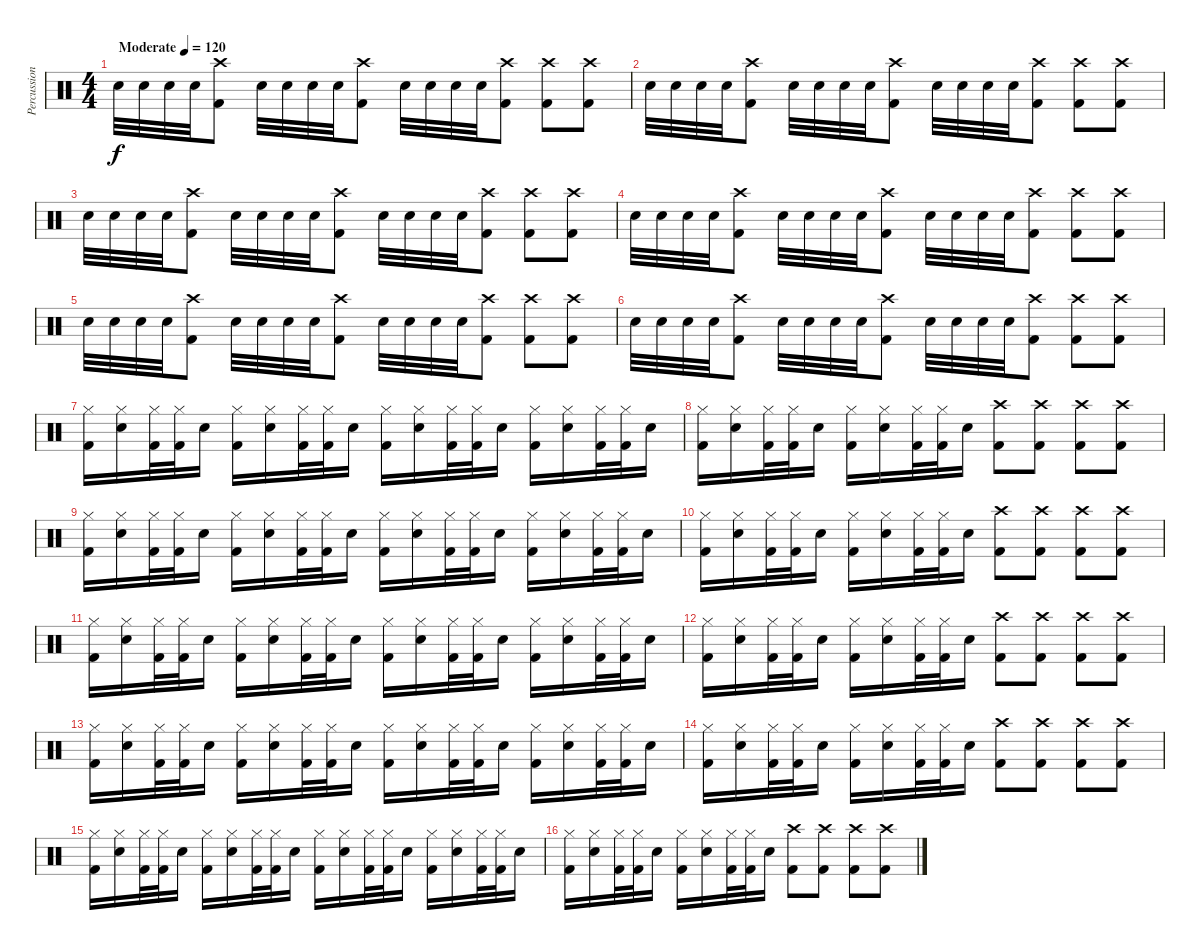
\track ("Percussion" "Percussion") {instrument percussion}
\staff {score}
\articulation defaults
\ts (4 4)
\tempo (120 "Moderate")
\clef neutral
\ks c "Electric Snare (hit)".32{dy f} "Electric Snare (hit)".32 "Electric Snare (hit)".32 "Electric Snare (hit)".32
("Crash high (hit)" "Kick (hit) 2").8 "Electric Snare (hit)".32 "Electric Snare (hit)".32 "Electric Snare (hit)".32 "Electric Snare (hit)".32 ("Crash high (hit)" "Kick (hit) 2").8 "Electric Snare (hit)".32 "Electric Snare (hit)".32 "Electric Snare (hit)".32 "Electric Snare (hit)".32 ("Crash high (hit)" "Kick (hit) 2").8 ("Crash high (hit)" "Kick (hit) 2").8 ("Crash high (hit)" "Kick (hit) 2").8 |
"Electric Snare (hit)".32 "Electric Snare (hit)".32 "Electric Snare (hit)".32 "Electric Snare (hit)".32 ("Crash high (hit)" "Kick (hit) 2").8 "Electric Snare (hit)".32 "Electric Snare (hit)".32 "Electric Snare (hit)".32 "Electric Snare (hit)".32 ("Crash high (hit)" "Kick (hit) 2").8 "Electric Snare (hit)".32 "Electric Snare (hit)".32 "Electric Snare (hit)".32 "Electric Snare (hit)".32 ("Crash high (hit)" "Kick (hit) 2").8 ("Crash high (hit)" "Kick (hit) 2").8 ("Crash high (hit)" "Kick (hit) 2").8 |
"Electric Snare (hit)".32 "Electric Snare (hit)".32 "Electric Snare (hit)".32 "Electric Snare (hit)".32 ("Crash high (hit)" "Kick (hit) 2").8 "Electric Snare (hit)".32 "Electric Snare (hit)".32 "Electric Snare (hit)".32 "Electric Snare (hit)".32 ("Crash high (hit)" "Kick (hit) 2").8 "Electric Snare (hit)".32 "Electric Snare (hit)".32 "Electric Snare (hit)".32 "Electric Snare (hit)".32 ("Crash high (hit)" "Kick (hit) 2").8 ("Crash high (hit)" "Kick (hit) 2").8 ("Crash high (hit)" "Kick (hit) 2").8 |
"Electric Snare (hit)".32 "Electric Snare (hit)".32 "Electric Snare (hit)".32 "Electric Snare (hit)".32 ("Crash high (hit)" "Kick (hit) 2").8 "Electric Snare (hit)".32 "Electric Snare (hit)".32 "Electric Snare (hit)".32 "Electric Snare (hit)".32 ("Crash high (hit)" "Kick (hit) 2").8 "Electric Snare (hit)".32 "Electric Snare (hit)".32 "Electric Snare (hit)".32 "Electric Snare (hit)".32 ("Crash high (hit)" "Kick (hit) 2").8 ("Crash high (hit)" "Kick (hit) 2").8 ("Crash high (hit)" "Kick (hit) 2").8 |
"Electric Snare (hit)".32 "Electric Snare (hit)".32 "Electric Snare (hit)".32 "Electric Snare (hit)".32 ("Crash high (hit)" "Kick (hit) 2").8 "Electric Snare (hit)".32 "Electric Snare (hit)".32 "Electric Snare (hit)".32 "Electric Snare (hit)".32 ("Crash high (hit)" "Kick (hit) 2").8 "Electric Snare (hit)".32 "Electric Snare (hit)".32 "Electric Snare (hit)".32 "Electric Snare (hit)".32 ("Crash high (hit)" "Kick (hit) 2").8 ("Crash high (hit)" "Kick (hit) 2").8 ("Crash high (hit)" "Kick (hit) 2").8 |
"Electric Snare (hit)".32 "Electric Snare (hit)".32 "Electric Snare (hit)".32 "Electric Snare (hit)".32 ("Crash high (hit)" "Kick (hit) 2").8 "Electric Snare (hit)".32 "Electric Snare (hit)".32 "Electric Snare (hit)".32 "Electric Snare (hit)".32 ("Crash high (hit)" "Kick (hit) 2").8 "Electric Snare (hit)".32 "Electric Snare (hit)".32 "Electric Snare (hit)".32 "Electric Snare (hit)".32 ("Crash high (hit)" "Kick (hit) 2").8 ("Crash high (hit)" "Kick (hit) 2").8 ("Crash high (hit)" "Kick (hit) 2").8 |
("Hi-Hat (closed)" "Kick (hit) 2").16 ("Hi-Hat (closed)" "Electric Snare (hit)").16 ("Hi-Hat (closed)" "Kick (hit) 2").32 ("Hi-Hat (closed)" "Kick (hit) 2").32 "Electric Snare (hit)".16 ("Hi-Hat (closed)" "Kick (hit) 2").16 ("Hi-Hat (closed)" "Electric Snare (hit)").16 ("Hi-Hat (closed)" "Kick (hit) 2").32 ("Hi-Hat (closed)" "Kick (hit) 2").32 "Electric Snare (hit)".16 ("Hi-Hat (closed)" "Kick (hit) 2").16 ("Hi-Hat (closed)" "Electric Snare (hit)").16 ("Hi-Hat (closed)" "Kick (hit) 2").32 ("Hi-Hat (closed)" "Kick (hit) 2").32 "Electric Snare (hit)".16 ("Hi-Hat (closed)" "Kick (hit) 2").16 ("Hi-Hat (closed)" "Electric Snare (hit)").16 ("Hi-Hat (closed)" "Kick (hit) 2").32 ("Hi-Hat (closed)" "Kick (hit) 2").32 "Electric Snare (hit)".16 |
("Hi-Hat (closed)" "Kick (hit) 2").16 ("Hi-Hat (closed)" "Electric Snare (hit)").16 ("Hi-Hat (closed)" "Kick (hit) 2").32 ("Hi-Hat (closed)" "Kick (hit) 2").32 "Electric Snare (hit)".16 ("Hi-Hat (closed)" "Kick (hit) 2").16 ("Hi-Hat (closed)" "Electric Snare (hit)").16 ("Hi-Hat (closed)" "Kick (hit) 2").32 ("Hi-Hat (closed)" "Kick (hit) 2").32 "Electric Snare (hit)".16 ("Crash high (hit)" "Kick (hit) 2").8 ("Crash high (hit)" "Kick (hit) 2").8 ("Crash high (hit)" "Kick (hit) 2").8 ("Crash high (hit)" "Kick (hit) 2").8 |
("Hi-Hat (closed)" "Kick (hit) 2").16 ("Hi-Hat (closed)" "Electric Snare (hit)").16 ("Hi-Hat (closed)" "Kick (hit) 2").32 ("Hi-Hat (closed)" "Kick (hit) 2").32 "Electric Snare (hit)".16 ("Hi-Hat (closed)" "Kick (hit) 2").16 ("Hi-Hat (closed)" "Electric Snare (hit)").16 ("Hi-Hat (closed)" "Kick (hit) 2").32 ("Hi-Hat (closed)" "Kick (hit) 2").32 "Electric Snare (hit)".16 ("Hi-Hat (closed)" "Kick (hit) 2").16 ("Hi-Hat (closed)" "Electric Snare (hit)").16 ("Hi-Hat (closed)" "Kick (hit) 2").32 ("Hi-Hat (closed)" "Kick (hit) 2").32 "Electric Snare (hit)".16 ("Hi-Hat (closed)" "Kick (hit) 2").16 ("Hi-Hat (closed)" "Electric Snare (hit)").16 ("Hi-Hat (closed)" "Kick (hit) 2").32 ("Hi-Hat (closed)" "Kick (hit) 2").32 "Electric Snare (hit)".16 |
("Hi-Hat (closed)" "Kick (hit) 2").16 ("Hi-Hat (closed)" "Electric Snare (hit)").16 ("Hi-Hat (closed)" "Kick (hit) 2").32 ("Hi-Hat (closed)" "Kick (hit) 2").32 "Electric Snare (hit)".16 ("Hi-Hat (closed)" "Kick (hit) 2").16 ("Hi-Hat (closed)" "Electric Snare (hit)").16 ("Hi-Hat (closed)" "Kick (hit) 2").32 ("Hi-Hat (closed)" "Kick (hit) 2").32 "Electric Snare (hit)".16 ("Crash high (hit)" "Kick (hit) 2").8 ("Crash high (hit)" "Kick (hit) 2").8 ("Crash high (hit)" "Kick (hit) 2").8 ("Crash high (hit)" "Kick (hit) 2").8 |
("Hi-Hat (closed)" "Kick (hit) 2").16 ("Hi-Hat (closed)" "Electric Snare (hit)").16 ("Hi-Hat (closed)" "Kick (hit) 2").32 ("Hi-Hat (closed)" "Kick (hit) 2").32 "Electric Snare (hit)".16 ("Hi-Hat (closed)" "Kick (hit) 2").16 ("Hi-Hat (closed)" "Electric Snare (hit)").16 ("Hi-Hat (closed)" "Kick (hit) 2").32 ("Hi-Hat (closed)" "Kick (hit) 2").32 "Electric Snare (hit)".16 ("Hi-Hat (closed)" "Kick (hit) 2").16 ("Hi-Hat (closed)" "Electric Snare (hit)").16 ("Hi-Hat (closed)" "Kick (hit) 2").32 ("Hi-Hat (closed)" "Kick (hit) 2").32 "Electric Snare (hit)".16 ("Hi-Hat (closed)" "Kick (hit) 2").16 ("Hi-Hat (closed)" "Electric Snare (hit)").16 ("Hi-Hat (closed)" "Kick (hit) 2").32 ("Hi-Hat (closed)" "Kick (hit) 2").32 "Electric Snare (hit)".16 |
("Hi-Hat (closed)" "Kick (hit) 2").16 ("Hi-Hat (closed)" "Electric Snare (hit)").16 ("Hi-Hat (closed)" "Kick (hit) 2").32 ("Hi-Hat (closed)" "Kick (hit) 2").32 "Electric Snare (hit)".16 ("Hi-Hat (closed)" "Kick (hit) 2").16 ("Hi-Hat (closed)" "Electric Snare (hit)").16 ("Hi-Hat (closed)" "Kick (hit) 2").32 ("Hi-Hat (closed)" "Kick (hit) 2").32 "Electric Snare (hit)".16 ("Crash high (hit)" "Kick (hit) 2").8 ("Crash high (hit)" "Kick (hit) 2").8 ("Crash high (hit)" "Kick (hit) 2").8 ("Crash high (hit)" "Kick (hit) 2").8 |
("Hi-Hat (closed)" "Kick (hit) 2").16 ("Hi-Hat (closed)" "Electric Snare (hit)").16 ("Hi-Hat (closed)" "Kick (hit) 2").32 ("Hi-Hat (closed)" "Kick (hit) 2").32 "Electric Snare (hit)".16 ("Hi-Hat (closed)" "Kick (hit) 2").16 ("Hi-Hat (closed)" "Electric Snare (hit)").16 ("Hi-Hat (closed)" "Kick (hit) 2").32 ("Hi-Hat (closed)" "Kick (hit) 2").32 "Electric Snare (hit)".16 ("Hi-Hat (closed)" "Kick (hit) 2").16 ("Hi-Hat (closed)" "Electric Snare (hit)").16 ("Hi-Hat (closed)" "Kick (hit) 2").32 ("Hi-Hat (closed)" "Kick (hit) 2").32 "Electric Snare (hit)".16 ("Hi-Hat (closed)" "Kick (hit) 2").16 ("Hi-Hat (closed)" "Electric Snare (hit)").16 ("Hi-Hat (closed)" "Kick (hit) 2").32 ("Hi-Hat (closed)" "Kick (hit) 2").32 "Electric Snare (hit)".16 |
("Hi-Hat (closed)" "Kick (hit) 2").16 ("Hi-Hat (closed)" "Electric Snare (hit)").16 ("Hi-Hat (closed)" "Kick (hit) 2").32 ("Hi-Hat (closed)" "Kick (hit) 2").32 "Electric Snare (hit)".16 ("Hi-Hat (closed)" "Kick (hit) 2").16 ("Hi-Hat (closed)" "Electric Snare (hit)").16 ("Hi-Hat (closed)" "Kick (hit) 2").32 ("Hi-Hat (closed)" "Kick (hit) 2").32 "Electric Snare (hit)".16 ("Crash high (hit)" "Kick (hit) 2").8 ("Crash high (hit)" "Kick (hit) 2").8 ("Crash high (hit)" "Kick (hit) 2").8 ("Crash high (hit)" "Kick (hit) 2").8 |
("Hi-Hat (closed)" "Kick (hit) 2").16 ("Hi-Hat (closed)" "Electric Snare (hit)").16 ("Hi-Hat (closed)" "Kick (hit) 2").32 ("Hi-Hat (closed)" "Kick (hit) 2").32 "Electric Snare (hit)".16 ("Hi-Hat (closed)" "Kick (hit) 2").16 ("Hi-Hat (closed)" "Electric Snare (hit)").16 ("Hi-Hat (closed)" "Kick (hit) 2").32 ("Hi-Hat (closed)" "Kick (hit) 2").32 "Electric Snare (hit)".16 ("Hi-Hat (closed)" "Kick (hit) 2").16 ("Hi-Hat (closed)" "Electric Snare (hit)").16 ("Hi-Hat (closed)" "Kick (hit) 2").32 ("Hi-Hat (closed)" "Kick (hit) 2").32 "Electric Snare (hit)".16 ("Hi-Hat (closed)" "Kick (hit) 2").16 ("Hi-Hat (closed)" "Electric Snare (hit)").16 ("Hi-Hat (closed)" "Kick (hit) 2").32 ("Hi-Hat (closed)" "Kick (hit) 2").32 "Electric Snare (hit)".16 |
("Hi-Hat (closed)" "Kick (hit) 2").16 ("Hi-Hat (closed)" "Electric Snare (hit)").16 ("Hi-Hat (closed)" "Kick (hit) 2").32 ("Hi-Hat (closed)" "Kick (hit) 2").32 "Electric Snare (hit)".16 ("Hi-Hat (closed)" "Kick (hit) 2").16 ("Hi-Hat (closed)" "Electric Snare (hit)").16 ("Hi-Hat (closed)" "Kick (hit) 2").32 ("Hi-Hat (closed)" "Kick (hit) 2").32 "Electric Snare (hit)".16 ("Crash high (hit)" "Kick (hit) 2").8 ("Crash high (hit)" "Kick (hit) 2").8 ("Crash high (hit)" "Kick (hit) 2").8 ("Crash high (hit)" "Kick (hit) 2").8
